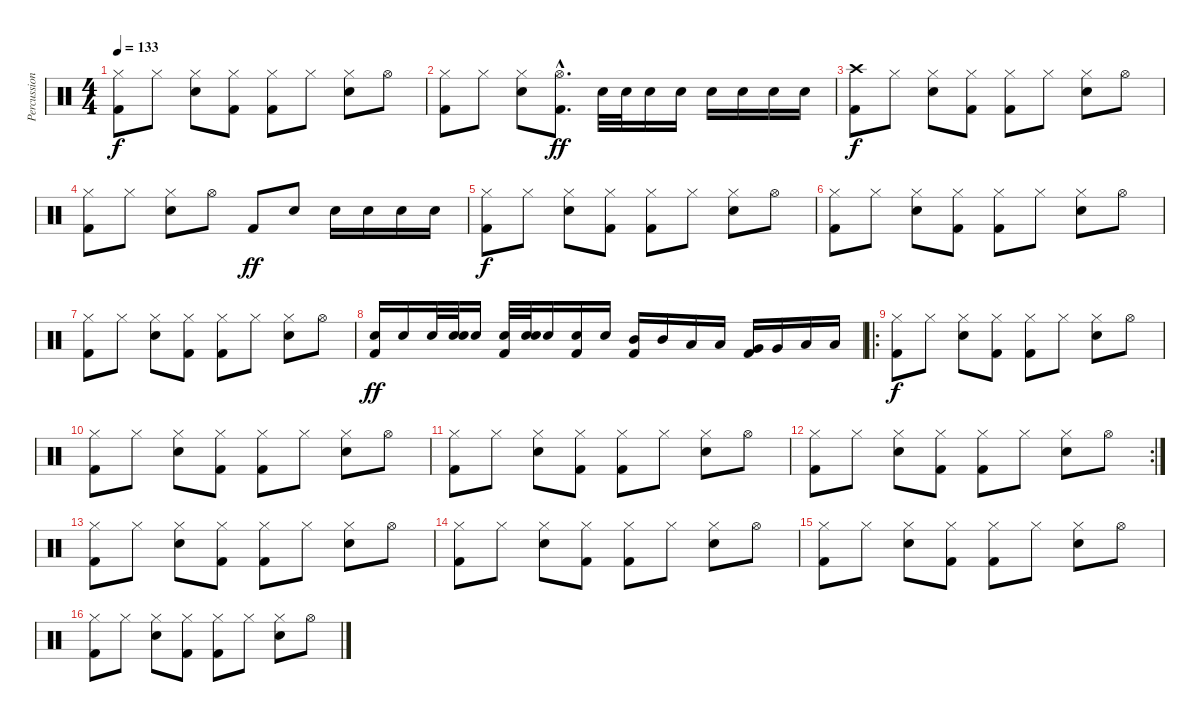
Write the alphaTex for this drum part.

\track ("Percussions" "Percussion") {instrument percussion}
\staff {score}
\articulation defaults
\ts (4 4)
\tempo 133
\clef neutral
\ks c
("Hi-Hat (closed)" "Kick (hit) 2").8{dy f} "Hi-Hat (closed)".8 ("Hi-Hat (closed)" "Electric Snare (hit)").8 ("Hi-Hat (closed)" "Kick (hit) 2").8 ("Hi-Hat (closed)" "Kick (hit) 2").8 "Hi-Hat (closed)".8 ("Hi-Hat (closed)" "Electric Snare (hit)").8 "Hi-Hat (open)".8 |
("Hi-Hat (closed)" "Kick (hit) 2").8 "Hi-Hat (closed)".8 ("Hi-Hat (closed)" "Electric Snare (hit)").8 ("Hi-Hat (open)"{hac} "Kick (hit) 2"{hac}).8{d dy ff} "Snare (hit) 2".32 "Snare (hit) 2".32 "Snare (hit) 2".16 "Snare (hit) 2".16 "Electric Snare (hit)".16 "Electric Snare (hit)".16 "Snare (hit) 2".16 "Electric Snare (hit)".16 |
("Crash high (hit)" "Kick (hit) 2").8{dy f} "Hi-Hat (closed)".8 ("Hi-Hat (closed)" "Electric Snare (hit)").8 ("Hi-Hat (closed)" "Kick (hit) 2").8 ("Hi-Hat (closed)" "Kick (hit) 2").8 "Hi-Hat (closed)".8 ("Hi-Hat (closed)" "Electric Snare (hit)").8 "Hi-Hat (open)".8 |
("Hi-Hat (closed)" "Kick (hit) 2").8 "Hi-Hat (closed)".8 ("Hi-Hat (closed)" "Electric Snare (hit)").8 "Hi-Hat (open)".8 "Kick (hit) 2".8{dy ff} "Electric Snare (hit)".8 "Electric Snare (hit)".16 "Electric Snare (hit)".16 "Snare (hit) 2".16 "Electric Snare (hit)".16 |
("Hi-Hat (closed)" "Kick (hit) 2").8{dy f} "Hi-Hat (closed)".8 ("Hi-Hat (closed)" "Electric Snare (hit)").8 ("Hi-Hat (closed)" "Kick (hit) 2").8 ("Hi-Hat (closed)" "Kick (hit) 2").8 "Hi-Hat (closed)".8 ("Hi-Hat (closed)" "Electric Snare (hit)").8 "Hi-Hat (open)".8 |
("Hi-Hat (closed)" "Kick (hit) 2").8 "Hi-Hat (closed)".8 ("Hi-Hat (closed)" "Electric Snare (hit)").8 ("Hi-Hat (closed)" "Kick (hit) 2").8 ("Hi-Hat (closed)" "Kick (hit) 2").8 "Hi-Hat (closed)".8 ("Hi-Hat (closed)" "Electric Snare (hit)").8 "Hi-Hat (open)".8 |
("Hi-Hat (closed)" "Kick (hit) 2").8 "Hi-Hat (closed)".8 ("Hi-Hat (closed)" "Electric Snare (hit)").8 ("Hi-Hat (closed)" "Kick (hit) 2").8 ("Hi-Hat (closed)" "Kick (hit) 2").8 "Hi-Hat (closed)".8 ("Hi-Hat (closed)" "Electric Snare (hit)").8 "Hi-Hat (open)".8 |
("Snare (hit) 2" "Kick (hit) 2").16{dy ff} "Snare (hit) 2".16 "Electric Snare (hit)".32 ("Snare (hit) 2" "Electric Snare (hit)").32 "Snare (hit) 2".16 ("Electric Snare (hit)" "Kick (hit) 2").32 ("Snare (hit) 2" "Electric Snare (hit)").32 "Snare (hit) 2".16 ("Snare (hit) 2" "Kick (hit) 2").16 "Snare (hit) 2".16 ("Mid Tom (hit)" "Kick (hit) 2").16 "Mid Tom (hit)".16 "Low Tom (hit)".16 "Low Tom (hit)".16 ("Very Low Tom (hit)" "Kick (hit) 2").16 "Very Low Tom (hit)".16 "Low Floor Tom (hit)".16 "Low Floor Tom (hit)".16 |
\ro
("Hi-Hat (closed)" "Kick (hit) 2").8{dy f} "Hi-Hat (closed)".8 ("Hi-Hat (closed)" "Electric Snare (hit)").8 ("Hi-Hat (closed)" "Kick (hit) 2").8 ("Hi-Hat (closed)" "Kick (hit) 2").8 "Hi-Hat (closed)".8 ("Hi-Hat (closed)" "Electric Snare (hit)").8 "Hi-Hat (open)".8 |
("Hi-Hat (closed)" "Kick (hit) 2").8 "Hi-Hat (closed)".8 ("Hi-Hat (closed)" "Electric Snare (hit)").8 ("Hi-Hat (closed)" "Kick (hit) 2").8 ("Hi-Hat (closed)" "Kick (hit) 2").8 "Hi-Hat (closed)".8 ("Hi-Hat (closed)" "Electric Snare (hit)").8 "Hi-Hat (open)".8 |
("Hi-Hat (closed)" "Kick (hit) 2").8 "Hi-Hat (closed)".8 ("Hi-Hat (closed)" "Electric Snare (hit)").8 ("Hi-Hat (closed)" "Kick (hit) 2").8 ("Hi-Hat (closed)" "Kick (hit) 2").8 "Hi-Hat (closed)".8 ("Hi-Hat (closed)" "Electric Snare (hit)").8 "Hi-Hat (open)".8 |
\rc 2
("Hi-Hat (closed)" "Kick (hit) 2").8 "Hi-Hat (closed)".8 ("Hi-Hat (closed)" "Electric Snare (hit)").8 ("Hi-Hat (closed)" "Kick (hit) 2").8 ("Hi-Hat (closed)" "Kick (hit) 2").8 "Hi-Hat (closed)".8 ("Hi-Hat (closed)" "Electric Snare (hit)").8 "Hi-Hat (open)".8 |
("Hi-Hat (closed)" "Kick (hit) 2").8 "Hi-Hat (closed)".8 ("Hi-Hat (closed)" "Electric Snare (hit)").8 ("Hi-Hat (closed)" "Kick (hit) 2").8 ("Hi-Hat (closed)" "Kick (hit) 2").8 "Hi-Hat (closed)".8 ("Hi-Hat (closed)" "Electric Snare (hit)").8 "Hi-Hat (open)".8 |
("Hi-Hat (closed)" "Kick (hit) 2").8 "Hi-Hat (closed)".8 ("Hi-Hat (closed)" "Electric Snare (hit)").8 ("Hi-Hat (closed)" "Kick (hit) 2").8 ("Hi-Hat (closed)" "Kick (hit) 2").8 "Hi-Hat (closed)".8 ("Hi-Hat (closed)" "Electric Snare (hit)").8 "Hi-Hat (open)".8 |
("Hi-Hat (closed)" "Kick (hit) 2").8 "Hi-Hat (closed)".8 ("Hi-Hat (closed)" "Electric Snare (hit)").8 ("Hi-Hat (closed)" "Kick (hit) 2").8 ("Hi-Hat (closed)" "Kick (hit) 2").8 "Hi-Hat (closed)".8 ("Hi-Hat (closed)" "Electric Snare (hit)").8 "Hi-Hat (open)".8 |
("Hi-Hat (closed)" "Kick (hit) 2").8 "Hi-Hat (closed)".8 ("Hi-Hat (closed)" "Electric Snare (hit)").8 ("Hi-Hat (closed)" "Kick (hit) 2").8 ("Hi-Hat (closed)" "Kick (hit) 2").8 "Hi-Hat (closed)".8 ("Hi-Hat (closed)" "Electric Snare (hit)").8 "Hi-Hat (open)".8
